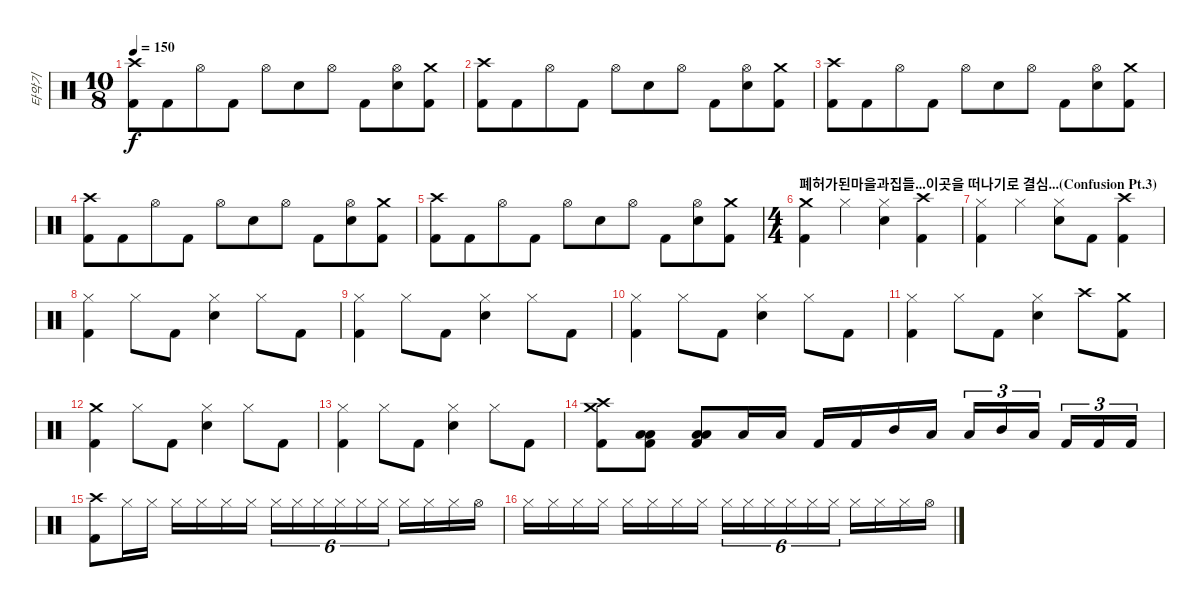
\track ("타악기" "타악기") {instrument percussion}
\staff {score}
\articulation defaults
\ts (10 8)
\tempo 150
\clef neutral
\ks c
("Crash high (hit)" "Kick (hit) 2").8{dy f} "Kick (hit) 2".8 "Hi-Hat (open)".8 "Kick (hit) 2".8 "Hi-Hat (open)".8 "Snare (hit) 2".8 "Hi-Hat (open)".8 "Kick (hit) 2".8 ("Hi-Hat (open)" "Snare (hit) 2").8 ("Crash medium (hit)" "Kick (hit) 2").8 |
("Crash high (hit)" "Kick (hit) 2").8 "Kick (hit) 2".8 "Hi-Hat (open)".8 "Kick (hit) 2".8 "Hi-Hat (open)".8 "Snare (hit) 2".8 "Hi-Hat (open)".8 "Kick (hit) 2".8 ("Hi-Hat (open)" "Snare (hit) 2").8 ("Crash medium (hit)" "Kick (hit) 2").8 |
("Crash high (hit)" "Kick (hit) 2").8 "Kick (hit) 2".8 "Hi-Hat (open)".8 "Kick (hit) 2".8 "Hi-Hat (open)".8 "Snare (hit) 2".8 "Hi-Hat (open)".8 "Kick (hit) 2".8 ("Hi-Hat (open)" "Snare (hit) 2").8 ("Crash medium (hit)" "Kick (hit) 2").8 |
("Crash high (hit)" "Kick (hit) 2").8 "Kick (hit) 2".8 "Hi-Hat (open)".8 "Kick (hit) 2".8 "Hi-Hat (open)".8 "Snare (hit) 2".8 "Hi-Hat (open)".8 "Kick (hit) 2".8 ("Hi-Hat (open)" "Snare (hit) 2").8 ("Crash medium (hit)" "Kick (hit) 2").8 |
("Crash high (hit)" "Kick (hit) 2").8 "Kick (hit) 2".8 "Hi-Hat (open)".8 "Kick (hit) 2".8 "Hi-Hat (open)".8 "Snare (hit) 2".8 "Hi-Hat (open)".8 "Kick (hit) 2".8 ("Hi-Hat (open)" "Snare (hit) 2").8 ("Crash medium (hit)" "Kick (hit) 2").8 |
\ts (4 4)
\section ("" "폐허가된마을과집들...이곳을 떠나기로 결심...(Confusion Pt.3)")
("Crash medium (hit)" "Kick (hit) 2").4 "Hi-Hat (closed)".4 ("Hi-Hat (closed)" "Snare (hit) 2").4 ("Crash high (hit)" "Kick (hit) 2").4 |
("Hi-Hat (closed)" "Kick (hit) 2").4 "Hi-Hat (closed)".4 ("Hi-Hat (closed)" "Snare (hit) 2").8 "Kick (hit) 2".8 ("Crash high (hit)" "Kick (hit) 2").4 |
("Hi-Hat (closed)" "Kick (hit) 2").4 "Hi-Hat (closed)".8 "Kick (hit) 2".8 ("Snare (hit) 2" "Hi-Hat (closed)").4 "Hi-Hat (closed)".8 "Kick (hit) 2".8 |
("Hi-Hat (closed)" "Kick (hit) 2").4 "Hi-Hat (closed)".8 "Kick (hit) 2".8 ("Snare (hit) 2" "Hi-Hat (closed)").4 "Hi-Hat (closed)".8 "Kick (hit) 2".8 |
("Hi-Hat (closed)" "Kick (hit) 2").4 "Hi-Hat (closed)".8 "Kick (hit) 2".8 ("Snare (hit) 2" "Hi-Hat (closed)").4 "Hi-Hat (closed)".8 "Kick (hit) 2".8 |
("Hi-Hat (closed)" "Kick (hit) 2").4 "Hi-Hat (closed)".8 "Kick (hit) 2".8 ("Snare (hit) 2" "Hi-Hat (closed)").4 "Crash high (hit)".8 ("Crash medium (hit)" "Kick (hit) 2").8 |
("Crash medium (hit)" "Kick (hit) 2").4 "Hi-Hat (closed)".8 "Kick (hit) 2".8 ("Snare (hit) 2" "Hi-Hat (closed)").4 "Hi-Hat (closed)".8 "Kick (hit) 2".8 |
("Hi-Hat (closed)" "Kick (hit) 2").4 "Hi-Hat (closed)".8 "Kick (hit) 2".8 ("Snare (hit) 2" "Hi-Hat (closed)").4 "Hi-Hat (closed)".8 "Kick (hit) 2".8 |
("Kick (hit) 2" "Crash medium (hit)" "Crash high (hit)").8 ("Kick (hit) 2" "Low Floor Tom (hit)" "Low Tom (hit)").8 ("Low Floor Tom (hit)" "Kick (hit) 2" "Low Tom (hit)").8 "Low Tom (hit)".16 "Low Tom (hit)".16 "Kick (hit) 2".16 "Kick (hit) 2".16 "Mid Tom (hit)".16 "Low Tom (hit)".16 "Low Tom (hit)".16{tu (3 2)} "Mid Tom (hit)".16{tu (3 2)} "Low Tom (hit)".16{tu (3 2)} "Kick (hit) 2".16{tu (3 2)} "Kick (hit) 2".16{tu (3 2)} "Kick (hit) 2".16{tu (3 2)} |
("Crash high (hit)" "Kick (hit) 2").8 "Hi-Hat (closed)".16 "Hi-Hat (closed)".16 "Hi-Hat (closed)".16 "Hi-Hat (closed)".16 "Hi-Hat (closed)".16 "Hi-Hat (closed)".16 "Hi-Hat (closed)".16{tu (6 4)} "Hi-Hat (closed)".16{tu (6 4)} "Hi-Hat (closed)".16{tu (6 4)} "Hi-Hat (closed)".16{tu (6 4)} "Hi-Hat (closed)".16{tu (6 4)} "Hi-Hat (closed)".16{tu (6 4)} "Hi-Hat (closed)".16 "Hi-Hat (closed)".16 "Hi-Hat (closed)".16 "Hi-Hat (open)".16 |
"Hi-Hat (closed)".16 "Hi-Hat (closed)".16 "Hi-Hat (closed)".16 "Hi-Hat (closed)".16 "Hi-Hat (closed)".16 "Hi-Hat (closed)".16 "Hi-Hat (closed)".16 "Hi-Hat (closed)".16 "Hi-Hat (closed)".16{tu (6 4)} "Hi-Hat (closed)".16{tu (6 4)} "Hi-Hat (closed)".16{tu (6 4)} "Hi-Hat (closed)".16{tu (6 4)} "Hi-Hat (closed)".16{tu (6 4)} "Hi-Hat (closed)".16{tu (6 4)} "Hi-Hat (closed)".16 "Hi-Hat (closed)".16 "Hi-Hat (closed)".16 "Hi-Hat (open)".16
